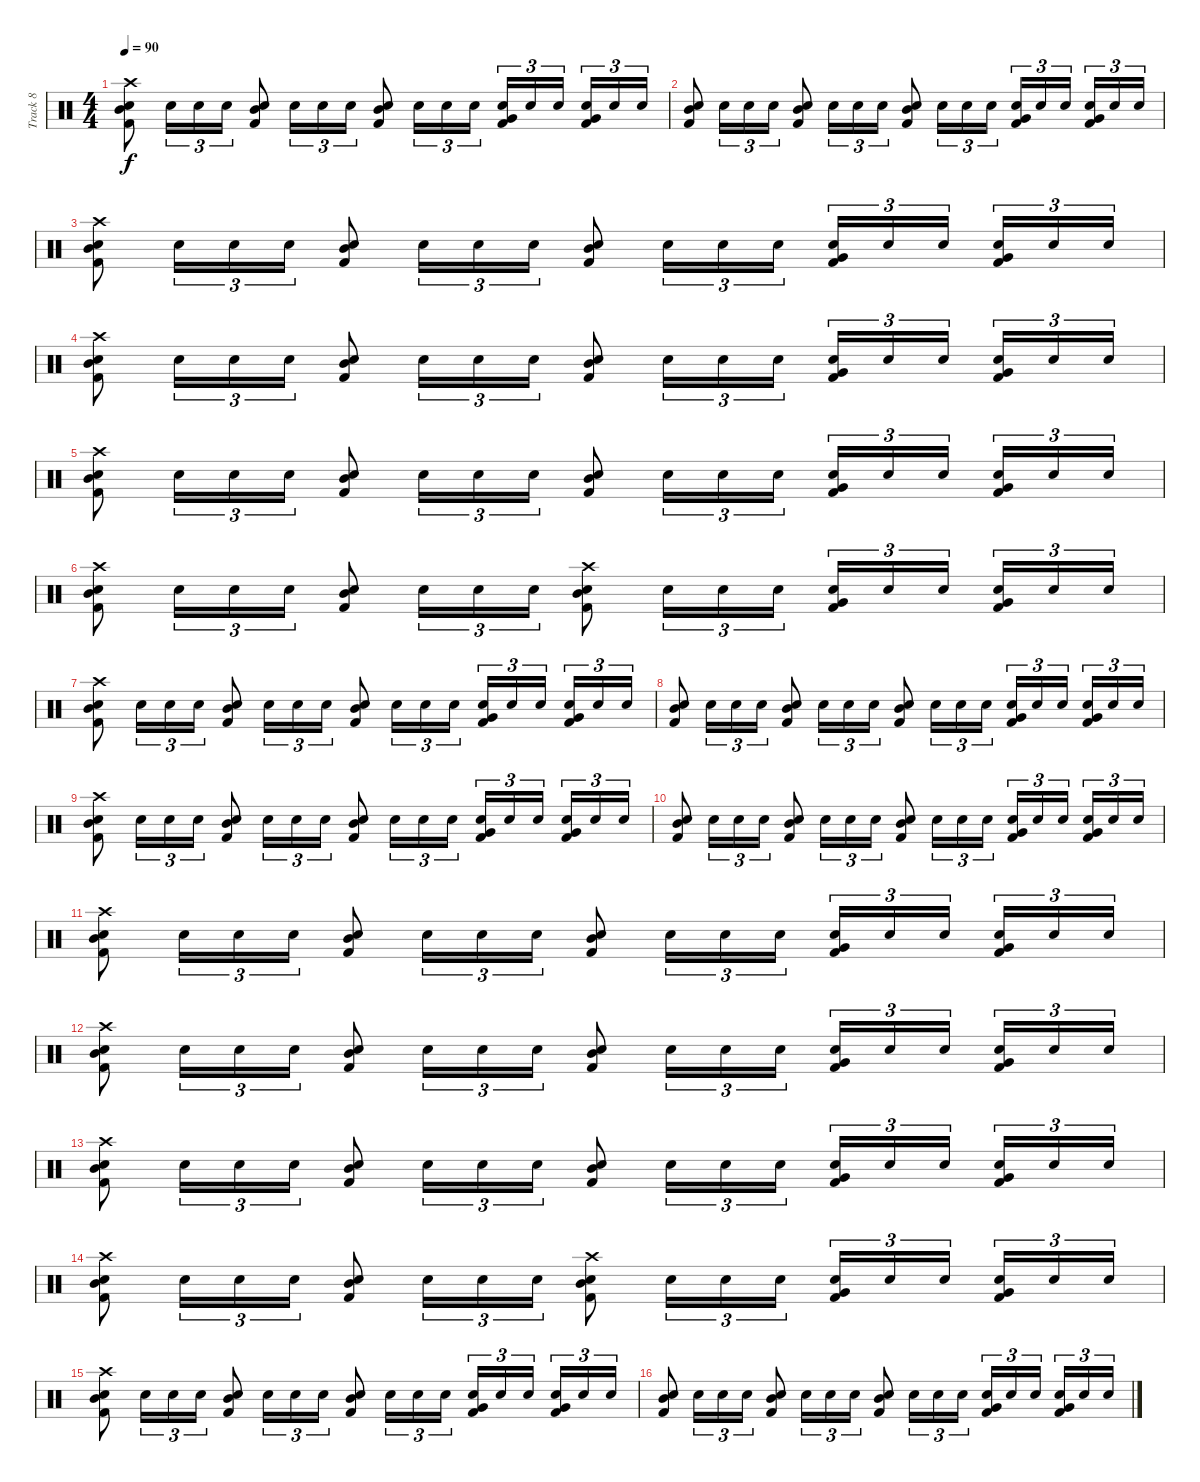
\track ("Track 8" "Track 8") {instrument percussion}
\staff {score}
\articulation defaults
\ts (4 4)
\tempo 90
\clef neutral
\ks c
("Crash high (hit)" "Mid Tom (hit)" "Snare (hit) 2" "Kick (hit) 2").8{dy f} "Snare (hit) 2".16{tu (3 2)} "Snare (hit) 2".16{tu (3 2)} "Snare (hit) 2".16{tu (3 2)} ("Mid Tom (hit)" "Snare (hit) 2" "Kick (hit) 2").8 "Snare (hit) 2".16{tu (3 2)} "Snare (hit) 2".16{tu (3 2)} "Snare (hit) 2".16{tu (3 2)} ("Mid Tom (hit)" "Snare (hit) 2" "Kick (hit) 2").8 "Snare (hit) 2".16{tu (3 2)} "Snare (hit) 2".16{tu (3 2)} "Snare (hit) 2".16{tu (3 2)} ("Very Low Tom (hit)" "Snare (hit) 2" "Kick (hit) 2").16{tu (3 2)} "Snare (hit) 2".16{tu (3 2)} "Snare (hit) 2".16{tu (3 2) beam splitsecondary} ("Very Low Tom (hit)" "Snare (hit) 2" "Kick (hit) 2").16{tu (3 2)} "Snare (hit) 2".16{tu (3 2)} "Snare (hit) 2".16{tu (3 2)} |
("Mid Tom (hit)" "Snare (hit) 2" "Kick (hit) 2").8 "Snare (hit) 2".16{tu (3 2)} "Snare (hit) 2".16{tu (3 2)} "Snare (hit) 2".16{tu (3 2)} ("Mid Tom (hit)" "Snare (hit) 2" "Kick (hit) 2").8 "Snare (hit) 2".16{tu (3 2)} "Snare (hit) 2".16{tu (3 2)} "Snare (hit) 2".16{tu (3 2)} ("Mid Tom (hit)" "Snare (hit) 2" "Kick (hit) 2").8 "Snare (hit) 2".16{tu (3 2)} "Snare (hit) 2".16{tu (3 2)} "Snare (hit) 2".16{tu (3 2)} ("Very Low Tom (hit)" "Snare (hit) 2" "Kick (hit) 2").16{tu (3 2)} "Snare (hit) 2".16{tu (3 2)} "Snare (hit) 2".16{tu (3 2) beam splitsecondary} ("Very Low Tom (hit)" "Snare (hit) 2" "Kick (hit) 2").16{tu (3 2)} "Snare (hit) 2".16{tu (3 2)} "Snare (hit) 2".16{tu (3 2)} |
("Crash high (hit)" "Mid Tom (hit)" "Snare (hit) 2" "Kick (hit) 2").8 "Snare (hit) 2".16{tu (3 2)} "Snare (hit) 2".16{tu (3 2)} "Snare (hit) 2".16{tu (3 2)} ("Mid Tom (hit)" "Snare (hit) 2" "Kick (hit) 2").8 "Snare (hit) 2".16{tu (3 2)} "Snare (hit) 2".16{tu (3 2)} "Snare (hit) 2".16{tu (3 2)} ("Mid Tom (hit)" "Snare (hit) 2" "Kick (hit) 2").8 "Snare (hit) 2".16{tu (3 2)} "Snare (hit) 2".16{tu (3 2)} "Snare (hit) 2".16{tu (3 2)} ("Very Low Tom (hit)" "Snare (hit) 2" "Kick (hit) 2").16{tu (3 2)} "Snare (hit) 2".16{tu (3 2)} "Snare (hit) 2".16{tu (3 2) beam splitsecondary} ("Very Low Tom (hit)" "Snare (hit) 2" "Kick (hit) 2").16{tu (3 2)} "Snare (hit) 2".16{tu (3 2)} "Snare (hit) 2".16{tu (3 2)} |
("Crash high (hit)" "Mid Tom (hit)" "Snare (hit) 2" "Kick (hit) 2").8 "Snare (hit) 2".16{tu (3 2)} "Snare (hit) 2".16{tu (3 2)} "Snare (hit) 2".16{tu (3 2)} ("Mid Tom (hit)" "Snare (hit) 2" "Kick (hit) 2").8 "Snare (hit) 2".16{tu (3 2)} "Snare (hit) 2".16{tu (3 2)} "Snare (hit) 2".16{tu (3 2)} ("Mid Tom (hit)" "Snare (hit) 2" "Kick (hit) 2").8 "Snare (hit) 2".16{tu (3 2)} "Snare (hit) 2".16{tu (3 2)} "Snare (hit) 2".16{tu (3 2)} ("Very Low Tom (hit)" "Snare (hit) 2" "Kick (hit) 2").16{tu (3 2)} "Snare (hit) 2".16{tu (3 2)} "Snare (hit) 2".16{tu (3 2) beam splitsecondary} ("Very Low Tom (hit)" "Snare (hit) 2" "Kick (hit) 2").16{tu (3 2)} "Snare (hit) 2".16{tu (3 2)} "Snare (hit) 2".16{tu (3 2)} |
("Crash high (hit)" "Mid Tom (hit)" "Snare (hit) 2" "Kick (hit) 2").8 "Snare (hit) 2".16{tu (3 2)} "Snare (hit) 2".16{tu (3 2)} "Snare (hit) 2".16{tu (3 2)} ("Mid Tom (hit)" "Snare (hit) 2" "Kick (hit) 2").8 "Snare (hit) 2".16{tu (3 2)} "Snare (hit) 2".16{tu (3 2)} "Snare (hit) 2".16{tu (3 2)} ("Mid Tom (hit)" "Snare (hit) 2" "Kick (hit) 2").8 "Snare (hit) 2".16{tu (3 2)} "Snare (hit) 2".16{tu (3 2)} "Snare (hit) 2".16{tu (3 2)} ("Very Low Tom (hit)" "Snare (hit) 2" "Kick (hit) 2").16{tu (3 2)} "Snare (hit) 2".16{tu (3 2)} "Snare (hit) 2".16{tu (3 2) beam splitsecondary} ("Very Low Tom (hit)" "Snare (hit) 2" "Kick (hit) 2").16{tu (3 2)} "Snare (hit) 2".16{tu (3 2)} "Snare (hit) 2".16{tu (3 2)} |
("Crash high (hit)" "Mid Tom (hit)" "Snare (hit) 2" "Kick (hit) 2").8 "Snare (hit) 2".16{tu (3 2)} "Snare (hit) 2".16{tu (3 2)} "Snare (hit) 2".16{tu (3 2)} ("Mid Tom (hit)" "Snare (hit) 2" "Kick (hit) 2").8 "Snare (hit) 2".16{tu (3 2)} "Snare (hit) 2".16{tu (3 2)} "Snare (hit) 2".16{tu (3 2)} ("Crash high (hit)" "Mid Tom (hit)" "Snare (hit) 2" "Kick (hit) 2").8 "Snare (hit) 2".16{tu (3 2)} "Snare (hit) 2".16{tu (3 2)} "Snare (hit) 2".16{tu (3 2)} ("Very Low Tom (hit)" "Snare (hit) 2" "Kick (hit) 2").16{tu (3 2)} "Snare (hit) 2".16{tu (3 2)} "Snare (hit) 2".16{tu (3 2) beam splitsecondary} ("Very Low Tom (hit)" "Snare (hit) 2" "Kick (hit) 2").16{tu (3 2)} "Snare (hit) 2".16{tu (3 2)} "Snare (hit) 2".16{tu (3 2)} |
("Crash high (hit)" "Mid Tom (hit)" "Snare (hit) 2" "Kick (hit) 2").8 "Snare (hit) 2".16{tu (3 2)} "Snare (hit) 2".16{tu (3 2)} "Snare (hit) 2".16{tu (3 2)} ("Mid Tom (hit)" "Snare (hit) 2" "Kick (hit) 2").8 "Snare (hit) 2".16{tu (3 2)} "Snare (hit) 2".16{tu (3 2)} "Snare (hit) 2".16{tu (3 2)} ("Mid Tom (hit)" "Snare (hit) 2" "Kick (hit) 2").8 "Snare (hit) 2".16{tu (3 2)} "Snare (hit) 2".16{tu (3 2)} "Snare (hit) 2".16{tu (3 2)} ("Very Low Tom (hit)" "Snare (hit) 2" "Kick (hit) 2").16{tu (3 2)} "Snare (hit) 2".16{tu (3 2)} "Snare (hit) 2".16{tu (3 2) beam splitsecondary} ("Very Low Tom (hit)" "Snare (hit) 2" "Kick (hit) 2").16{tu (3 2)} "Snare (hit) 2".16{tu (3 2)} "Snare (hit) 2".16{tu (3 2)} |
("Mid Tom (hit)" "Snare (hit) 2" "Kick (hit) 2").8 "Snare (hit) 2".16{tu (3 2)} "Snare (hit) 2".16{tu (3 2)} "Snare (hit) 2".16{tu (3 2)} ("Mid Tom (hit)" "Snare (hit) 2" "Kick (hit) 2").8 "Snare (hit) 2".16{tu (3 2)} "Snare (hit) 2".16{tu (3 2)} "Snare (hit) 2".16{tu (3 2)} ("Mid Tom (hit)" "Snare (hit) 2" "Kick (hit) 2").8 "Snare (hit) 2".16{tu (3 2)} "Snare (hit) 2".16{tu (3 2)} "Snare (hit) 2".16{tu (3 2)} ("Very Low Tom (hit)" "Snare (hit) 2" "Kick (hit) 2").16{tu (3 2)} "Snare (hit) 2".16{tu (3 2)} "Snare (hit) 2".16{tu (3 2) beam splitsecondary} ("Very Low Tom (hit)" "Snare (hit) 2" "Kick (hit) 2").16{tu (3 2)} "Snare (hit) 2".16{tu (3 2)} "Snare (hit) 2".16{tu (3 2)} |
("Crash high (hit)" "Mid Tom (hit)" "Snare (hit) 2" "Kick (hit) 2").8 "Snare (hit) 2".16{tu (3 2)} "Snare (hit) 2".16{tu (3 2)} "Snare (hit) 2".16{tu (3 2)} ("Mid Tom (hit)" "Snare (hit) 2" "Kick (hit) 2").8 "Snare (hit) 2".16{tu (3 2)} "Snare (hit) 2".16{tu (3 2)} "Snare (hit) 2".16{tu (3 2)} ("Mid Tom (hit)" "Snare (hit) 2" "Kick (hit) 2").8 "Snare (hit) 2".16{tu (3 2)} "Snare (hit) 2".16{tu (3 2)} "Snare (hit) 2".16{tu (3 2)} ("Very Low Tom (hit)" "Snare (hit) 2" "Kick (hit) 2").16{tu (3 2)} "Snare (hit) 2".16{tu (3 2)} "Snare (hit) 2".16{tu (3 2) beam splitsecondary} ("Very Low Tom (hit)" "Snare (hit) 2" "Kick (hit) 2").16{tu (3 2)} "Snare (hit) 2".16{tu (3 2)} "Snare (hit) 2".16{tu (3 2)} |
("Mid Tom (hit)" "Snare (hit) 2" "Kick (hit) 2").8 "Snare (hit) 2".16{tu (3 2)} "Snare (hit) 2".16{tu (3 2)} "Snare (hit) 2".16{tu (3 2)} ("Mid Tom (hit)" "Snare (hit) 2" "Kick (hit) 2").8 "Snare (hit) 2".16{tu (3 2)} "Snare (hit) 2".16{tu (3 2)} "Snare (hit) 2".16{tu (3 2)} ("Mid Tom (hit)" "Snare (hit) 2" "Kick (hit) 2").8 "Snare (hit) 2".16{tu (3 2)} "Snare (hit) 2".16{tu (3 2)} "Snare (hit) 2".16{tu (3 2)} ("Very Low Tom (hit)" "Snare (hit) 2" "Kick (hit) 2").16{tu (3 2)} "Snare (hit) 2".16{tu (3 2)} "Snare (hit) 2".16{tu (3 2) beam splitsecondary} ("Very Low Tom (hit)" "Snare (hit) 2" "Kick (hit) 2").16{tu (3 2)} "Snare (hit) 2".16{tu (3 2)} "Snare (hit) 2".16{tu (3 2)} |
("Crash high (hit)" "Mid Tom (hit)" "Snare (hit) 2" "Kick (hit) 2").8 "Snare (hit) 2".16{tu (3 2)} "Snare (hit) 2".16{tu (3 2)} "Snare (hit) 2".16{tu (3 2)} ("Mid Tom (hit)" "Snare (hit) 2" "Kick (hit) 2").8 "Snare (hit) 2".16{tu (3 2)} "Snare (hit) 2".16{tu (3 2)} "Snare (hit) 2".16{tu (3 2)} ("Mid Tom (hit)" "Snare (hit) 2" "Kick (hit) 2").8 "Snare (hit) 2".16{tu (3 2)} "Snare (hit) 2".16{tu (3 2)} "Snare (hit) 2".16{tu (3 2)} ("Very Low Tom (hit)" "Snare (hit) 2" "Kick (hit) 2").16{tu (3 2)} "Snare (hit) 2".16{tu (3 2)} "Snare (hit) 2".16{tu (3 2) beam splitsecondary} ("Very Low Tom (hit)" "Snare (hit) 2" "Kick (hit) 2").16{tu (3 2)} "Snare (hit) 2".16{tu (3 2)} "Snare (hit) 2".16{tu (3 2)} |
("Crash high (hit)" "Mid Tom (hit)" "Snare (hit) 2" "Kick (hit) 2").8 "Snare (hit) 2".16{tu (3 2)} "Snare (hit) 2".16{tu (3 2)} "Snare (hit) 2".16{tu (3 2)} ("Mid Tom (hit)" "Snare (hit) 2" "Kick (hit) 2").8 "Snare (hit) 2".16{tu (3 2)} "Snare (hit) 2".16{tu (3 2)} "Snare (hit) 2".16{tu (3 2)} ("Mid Tom (hit)" "Snare (hit) 2" "Kick (hit) 2").8 "Snare (hit) 2".16{tu (3 2)} "Snare (hit) 2".16{tu (3 2)} "Snare (hit) 2".16{tu (3 2)} ("Very Low Tom (hit)" "Snare (hit) 2" "Kick (hit) 2").16{tu (3 2)} "Snare (hit) 2".16{tu (3 2)} "Snare (hit) 2".16{tu (3 2) beam splitsecondary} ("Very Low Tom (hit)" "Snare (hit) 2" "Kick (hit) 2").16{tu (3 2)} "Snare (hit) 2".16{tu (3 2)} "Snare (hit) 2".16{tu (3 2)} |
("Crash high (hit)" "Mid Tom (hit)" "Snare (hit) 2" "Kick (hit) 2").8 "Snare (hit) 2".16{tu (3 2)} "Snare (hit) 2".16{tu (3 2)} "Snare (hit) 2".16{tu (3 2)} ("Mid Tom (hit)" "Snare (hit) 2" "Kick (hit) 2").8 "Snare (hit) 2".16{tu (3 2)} "Snare (hit) 2".16{tu (3 2)} "Snare (hit) 2".16{tu (3 2)} ("Mid Tom (hit)" "Snare (hit) 2" "Kick (hit) 2").8 "Snare (hit) 2".16{tu (3 2)} "Snare (hit) 2".16{tu (3 2)} "Snare (hit) 2".16{tu (3 2)} ("Very Low Tom (hit)" "Snare (hit) 2" "Kick (hit) 2").16{tu (3 2)} "Snare (hit) 2".16{tu (3 2)} "Snare (hit) 2".16{tu (3 2) beam splitsecondary} ("Very Low Tom (hit)" "Snare (hit) 2" "Kick (hit) 2").16{tu (3 2)} "Snare (hit) 2".16{tu (3 2)} "Snare (hit) 2".16{tu (3 2)} |
("Crash high (hit)" "Mid Tom (hit)" "Snare (hit) 2" "Kick (hit) 2").8 "Snare (hit) 2".16{tu (3 2)} "Snare (hit) 2".16{tu (3 2)} "Snare (hit) 2".16{tu (3 2)} ("Mid Tom (hit)" "Snare (hit) 2" "Kick (hit) 2").8 "Snare (hit) 2".16{tu (3 2)} "Snare (hit) 2".16{tu (3 2)} "Snare (hit) 2".16{tu (3 2)} ("Crash high (hit)" "Mid Tom (hit)" "Snare (hit) 2" "Kick (hit) 2").8 "Snare (hit) 2".16{tu (3 2)} "Snare (hit) 2".16{tu (3 2)} "Snare (hit) 2".16{tu (3 2)} ("Very Low Tom (hit)" "Snare (hit) 2" "Kick (hit) 2").16{tu (3 2)} "Snare (hit) 2".16{tu (3 2)} "Snare (hit) 2".16{tu (3 2) beam splitsecondary} ("Very Low Tom (hit)" "Snare (hit) 2" "Kick (hit) 2").16{tu (3 2)} "Snare (hit) 2".16{tu (3 2)} "Snare (hit) 2".16{tu (3 2)} |
("Crash high (hit)" "Mid Tom (hit)" "Snare (hit) 2" "Kick (hit) 2").8 "Snare (hit) 2".16{tu (3 2)} "Snare (hit) 2".16{tu (3 2)} "Snare (hit) 2".16{tu (3 2)} ("Mid Tom (hit)" "Snare (hit) 2" "Kick (hit) 2").8 "Snare (hit) 2".16{tu (3 2)} "Snare (hit) 2".16{tu (3 2)} "Snare (hit) 2".16{tu (3 2)} ("Mid Tom (hit)" "Snare (hit) 2" "Kick (hit) 2").8 "Snare (hit) 2".16{tu (3 2)} "Snare (hit) 2".16{tu (3 2)} "Snare (hit) 2".16{tu (3 2)} ("Very Low Tom (hit)" "Snare (hit) 2" "Kick (hit) 2").16{tu (3 2)} "Snare (hit) 2".16{tu (3 2)} "Snare (hit) 2".16{tu (3 2) beam splitsecondary} ("Very Low Tom (hit)" "Snare (hit) 2" "Kick (hit) 2").16{tu (3 2)} "Snare (hit) 2".16{tu (3 2)} "Snare (hit) 2".16{tu (3 2)} |
("Mid Tom (hit)" "Snare (hit) 2" "Kick (hit) 2").8 "Snare (hit) 2".16{tu (3 2)} "Snare (hit) 2".16{tu (3 2)} "Snare (hit) 2".16{tu (3 2)} ("Mid Tom (hit)" "Snare (hit) 2" "Kick (hit) 2").8 "Snare (hit) 2".16{tu (3 2)} "Snare (hit) 2".16{tu (3 2)} "Snare (hit) 2".16{tu (3 2)} ("Mid Tom (hit)" "Snare (hit) 2" "Kick (hit) 2").8 "Snare (hit) 2".16{tu (3 2)} "Snare (hit) 2".16{tu (3 2)} "Snare (hit) 2".16{tu (3 2)} ("Very Low Tom (hit)" "Snare (hit) 2" "Kick (hit) 2").16{tu (3 2)} "Snare (hit) 2".16{tu (3 2)} "Snare (hit) 2".16{tu (3 2) beam splitsecondary} ("Very Low Tom (hit)" "Snare (hit) 2" "Kick (hit) 2").16{tu (3 2)} "Snare (hit) 2".16{tu (3 2)} "Snare (hit) 2".16{tu (3 2)}
